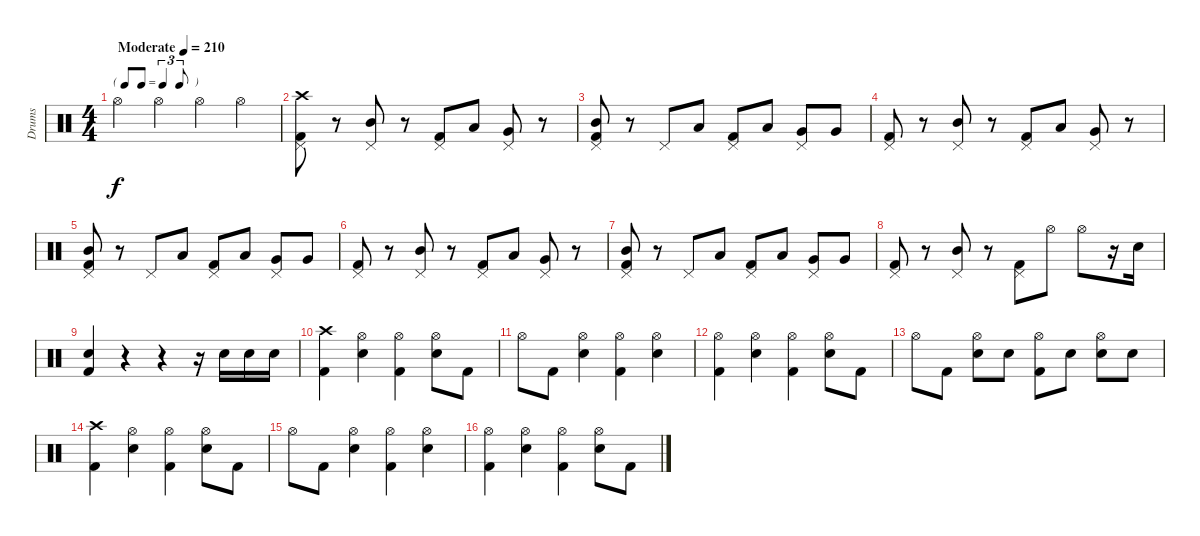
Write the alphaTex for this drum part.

\track ("Drums" "Drums") {instrument percussion}
\staff {score}
\articulation defaults
\ts (4 4)
\tf triplet8th
\tempo (210 "Moderate")
\clef neutral
\ks c "Hi-Hat (open)".4{dy f} "Hi-Hat (open)".4 "Hi-Hat (open)".4 "Hi-Hat (open)".4
|
("Crash high (hit)" "Pedal Hi-Hat (hit)" "Kick (hit) 2").8 r.8 ("Pedal Hi-Hat (hit)" "Mid Tom (hit)").8 r.8 ("Pedal Hi-Hat (hit)" "Kick (hit) 2").8 "Low Tom (hit)".8 ("Pedal Hi-Hat (hit)" "Very Low Tom (hit)").8 r.8 |
("Pedal Hi-Hat (hit)" "Mid Tom (hit)" "Kick (hit) 2").8 r.8 "Pedal Hi-Hat (hit)".8 "Low Tom (hit)".8 ("Pedal Hi-Hat (hit)" "Kick (hit) 2").8 "Low Tom (hit)".8 ("Pedal Hi-Hat (hit)" "Very Low Tom (hit)").8 "Very Low Tom (hit)".8 |
("Pedal Hi-Hat (hit)" "Kick (hit) 2").8 r.8 ("Pedal Hi-Hat (hit)" "Mid Tom (hit)").8 r.8 ("Pedal Hi-Hat (hit)" "Kick (hit) 2").8 "Low Tom (hit)".8 ("Pedal Hi-Hat (hit)" "Very Low Tom (hit)").8 r.8 |
("Pedal Hi-Hat (hit)" "Mid Tom (hit)" "Kick (hit) 2").8 r.8 "Pedal Hi-Hat (hit)".8 "Low Tom (hit)".8 ("Pedal Hi-Hat (hit)" "Kick (hit) 2").8 "Low Tom (hit)".8 ("Pedal Hi-Hat (hit)" "Very Low Tom (hit)").8 "Very Low Tom (hit)".8 |
("Pedal Hi-Hat (hit)" "Kick (hit) 2").8 r.8 ("Pedal Hi-Hat (hit)" "Mid Tom (hit)").8 r.8 ("Pedal Hi-Hat (hit)" "Kick (hit) 2").8 "Low Tom (hit)".8 ("Pedal Hi-Hat (hit)" "Very Low Tom (hit)").8 r.8 |
("Pedal Hi-Hat (hit)" "Mid Tom (hit)" "Kick (hit) 2").8 r.8 "Pedal Hi-Hat (hit)".8 "Low Tom (hit)".8 ("Pedal Hi-Hat (hit)" "Kick (hit) 2").8 "Low Tom (hit)".8 ("Pedal Hi-Hat (hit)" "Very Low Tom (hit)").8 "Very Low Tom (hit)".8 |
("Pedal Hi-Hat (hit)" "Kick (hit) 2").8 r.8 ("Pedal Hi-Hat (hit)" "Mid Tom (hit)").8 r.8 ("Pedal Hi-Hat (hit)" "Kick (hit) 2").8 "Hi-Hat (open)".8 "Hi-Hat (open)".8 r.16 "Snare (hit) 2".16 |
("Snare (hit) 2" "Kick (hit) 2").4 r.4 r.4 r.16 "Snare (hit) 2".16 "Snare (hit) 2".16 "Snare (hit) 2".16 |
("Crash high (hit)" "Kick (hit) 2").4 ("Hi-Hat (open)" "Snare (hit) 2").4 ("Hi-Hat (open)" "Kick (hit) 2").4 ("Hi-Hat (open)" "Snare (hit) 2").8 "Kick (hit) 2".8 |
"Hi-Hat (open)".8 "Kick (hit) 2".8 ("Hi-Hat (open)" "Snare (hit) 2").4 ("Hi-Hat (open)" "Kick (hit) 2").4 ("Hi-Hat (open)" "Snare (hit) 2").4 |
("Hi-Hat (open)" "Kick (hit) 2").4 ("Hi-Hat (open)" "Snare (hit) 2").4 ("Hi-Hat (open)" "Kick (hit) 2").4 ("Hi-Hat (open)" "Snare (hit) 2").8 "Kick (hit) 2".8 |
"Hi-Hat (open)".8 "Kick (hit) 2".8 ("Hi-Hat (open)" "Snare (hit) 2").8 "Snare (hit) 2".8 ("Hi-Hat (open)" "Kick (hit) 2").8 "Snare (hit) 2".8 ("Hi-Hat (open)" "Snare (hit) 2").8 "Snare (hit) 2".8 |
("Crash high (hit)" "Kick (hit) 2").4 ("Hi-Hat (open)" "Snare (hit) 2").4 ("Hi-Hat (open)" "Kick (hit) 2").4 ("Hi-Hat (open)" "Snare (hit) 2").8 "Kick (hit) 2".8 |
"Hi-Hat (open)".8 "Kick (hit) 2".8 ("Hi-Hat (open)" "Snare (hit) 2").4 ("Hi-Hat (open)" "Kick (hit) 2").4 ("Hi-Hat (open)" "Snare (hit) 2").4 |
("Hi-Hat (open)" "Kick (hit) 2").4 ("Hi-Hat (open)" "Snare (hit) 2").4 ("Hi-Hat (open)" "Kick (hit) 2").4 ("Hi-Hat (open)" "Snare (hit) 2").8 "Kick (hit) 2".8
